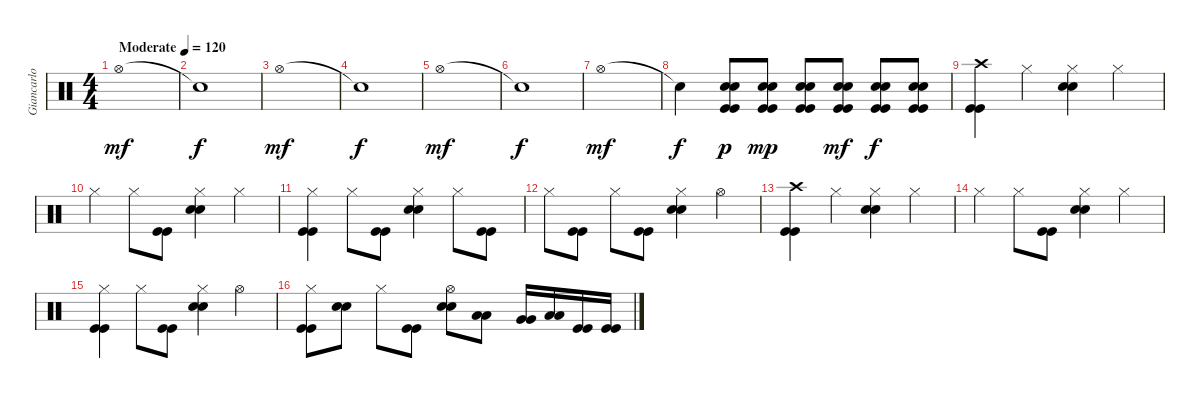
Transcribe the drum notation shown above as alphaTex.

\track ("Giancarlo Autenzio - Drums" "Giancarlo ") {instrument percussion}
\staff {score}
\articulation defaults
\ts (4 4)
\tempo (120 "Moderate")
\tempo 122
\tempo (120 "Moderate")
\clef neutral
\ks c "Hi-Hat (open)".1{dy mf}
|
"Snare (hit)"{t}.1{dy f} |
"Hi-Hat (open)".1{dy mf} |
"Snare (hit)"{t}.1{dy f} |
"Hi-Hat (open)".1{dy mf} |
"Snare (hit)"{t}.1{dy f} |
"Hi-Hat (open)".1{dy mf} |
"Snare (hit)"{t}.4{dy f} ("Kick (hit)" "Kick (hit)" "Electric Snare (hit)" "Electric Snare (hit)").8{dy p} ("Kick (hit)" "Kick (hit)" "Electric Snare (hit)" "Electric Snare (hit)").8{dy mp} ("Kick (hit)" "Kick (hit)" "Electric Snare (hit)" "Electric Snare (hit)").8 ("Kick (hit)" "Kick (hit)" "Electric Snare (hit)" "Electric Snare (hit)").8{dy mf} ("Kick (hit)" "Kick (hit)" "Electric Snare (hit)" "Electric Snare (hit)").8{dy f} ("Kick (hit)" "Kick (hit)" "Electric Snare (hit)" "Electric Snare (hit)").8 |
("Kick (hit)" "Kick (hit)" "Crash high (hit)").4 "Hi-Hat (closed)".4 ("Electric Snare (hit)" "Electric Snare (hit)" "Hi-Hat (closed)").4 "Hi-Hat (closed)".4 |
"Hi-Hat (closed)".4 "Hi-Hat (closed)".8 ("Kick (hit)" "Kick (hit)").8 ("Electric Snare (hit)" "Electric Snare (hit)" "Hi-Hat (closed)").4 "Hi-Hat (closed)".4 |
("Kick (hit)" "Kick (hit)" "Hi-Hat (closed)").4 "Hi-Hat (closed)".8 ("Kick (hit)" "Kick (hit)").8 ("Electric Snare (hit)" "Electric Snare (hit)" "Hi-Hat (closed)").4 "Hi-Hat (closed)".8 ("Kick (hit)" "Kick (hit)").8 |
"Hi-Hat (closed)".8 ("Kick (hit)" "Kick (hit)").8 "Hi-Hat (closed)".8 ("Kick (hit)" "Kick (hit)").8 ("Electric Snare (hit)" "Electric Snare (hit)" "Hi-Hat (closed)").4 "Hi-Hat (open)".4 |
("Kick (hit)" "Kick (hit)" "Crash high (hit)").4 "Hi-Hat (closed)".4 ("Electric Snare (hit)" "Electric Snare (hit)" "Hi-Hat (closed)").4 "Hi-Hat (closed)".4 |
"Hi-Hat (closed)".4 "Hi-Hat (closed)".8 ("Kick (hit)" "Kick (hit)").8 ("Electric Snare (hit)" "Electric Snare (hit)" "Hi-Hat (closed)").4 "Hi-Hat (closed)".4 |
("Kick (hit)" "Kick (hit)" "Hi-Hat (closed)").4 "Hi-Hat (closed)".8 ("Kick (hit)" "Kick (hit)").8 ("Electric Snare (hit)" "Electric Snare (hit)" "Hi-Hat (closed)").4 "Hi-Hat (open)".4 |
("Kick (hit)" "Kick (hit)" "Hi-Hat (closed)").8 ("Electric Snare (hit)" "Electric Snare (hit)").8 "Hi-Hat (closed)".8 ("Kick (hit)" "Kick (hit)").8 ("Electric Snare (hit)" "Electric Snare (hit)" "Hi-Hat (open)").8 ("Low Tom (hit)" "Low Tom (hit)").8 ("Very Low Tom (hit)" "Very Low Tom (hit)").16 ("Low Floor Tom (hit)" "Low Floor Tom (hit)").16 ("Kick (hit)" "Kick (hit)").16 ("Kick (hit)" "Kick (hit)").16
